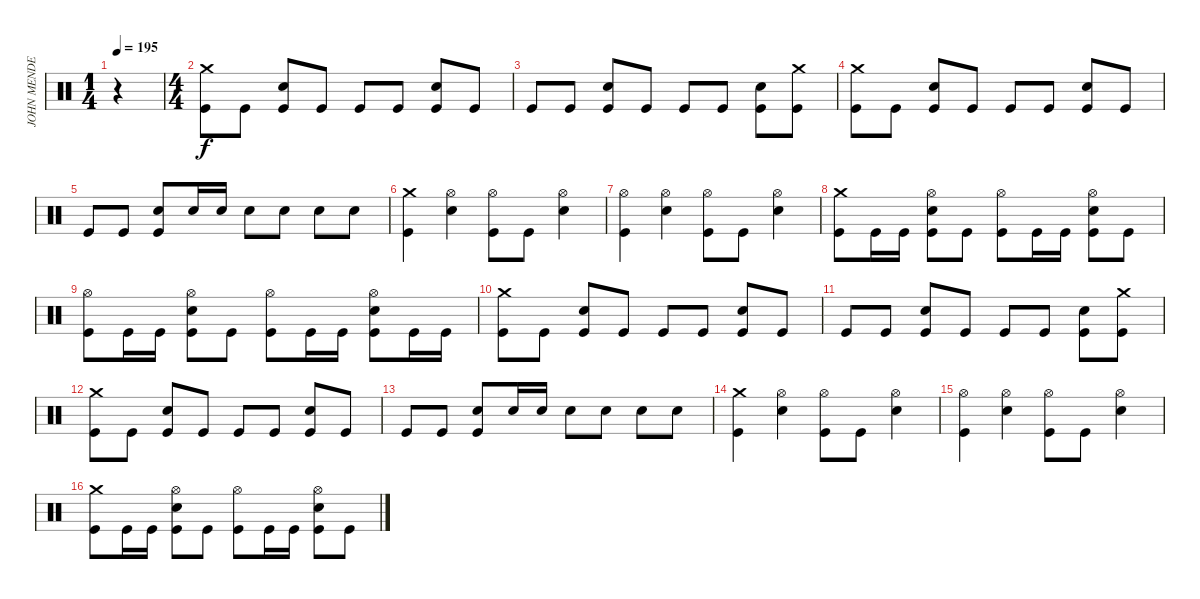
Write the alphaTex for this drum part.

\track ("JOHN MENDESSSSSSS" "JOHN MENDE") {instrument percussion}
\staff {score}
\articulation defaults
\ts (1 4)
\tempo 195
\clef neutral
\ks c
r.4{dy f} |
\ts (4 4)
("Kick (hit)" "Crash medium (hit)").8 "Kick (hit)".8 ("Kick (hit)" "Snare (hit) 2").8 "Kick (hit)".8 "Kick (hit)".8 "Kick (hit)".8 ("Kick (hit)" "Snare (hit) 2").8 "Kick (hit)".8 |
"Kick (hit)".8 "Kick (hit)".8 ("Kick (hit)" "Snare (hit) 2").8 "Kick (hit)".8 "Kick (hit)".8 "Kick (hit)".8 ("Kick (hit)" "Snare (hit) 2").8 ("Kick (hit)" "Crash medium (hit)").8 |
("Kick (hit)" "Crash medium (hit)").8 "Kick (hit)".8 ("Kick (hit)" "Snare (hit) 2").8 "Kick (hit)".8 "Kick (hit)".8 "Kick (hit)".8 ("Kick (hit)" "Snare (hit) 2").8 "Kick (hit)".8 |
"Kick (hit)".8 "Kick (hit)".8 ("Kick (hit)" "Snare (hit) 2").8 "Snare (hit) 2".16 "Snare (hit) 2".16 "Snare (hit) 2".8 "Snare (hit) 2".8 "Snare (hit) 2".8 "Snare (hit) 2".8 |
("Kick (hit)" "Crash medium (hit)").4 ("Hi-Hat (open)" "Snare (hit) 2").4 ("Kick (hit)" "Hi-Hat (open)").8 "Kick (hit)".8 ("Hi-Hat (open)" "Snare (hit) 2").4 |
("Kick (hit)" "Hi-Hat (open)").4 ("Hi-Hat (open)" "Snare (hit) 2").4 ("Kick (hit)" "Hi-Hat (open)").8 "Kick (hit)".8 ("Hi-Hat (open)" "Snare (hit) 2").4 |
("Kick (hit)" "Crash medium (hit)").8 "Kick (hit)".16 "Kick (hit)".16 ("Kick (hit)" "Snare (hit) 2" "Hi-Hat (open)").8 "Kick (hit)".8 ("Kick (hit)" "Hi-Hat (open)").8 "Kick (hit)".16 "Kick (hit)".16 ("Kick (hit)" "Snare (hit) 2" "Hi-Hat (open)").8 "Kick (hit)".8 |
("Kick (hit)" "Hi-Hat (open)").8 "Kick (hit)".16 "Kick (hit)".16 ("Kick (hit)" "Snare (hit) 2" "Hi-Hat (open)").8 "Kick (hit)".8 ("Kick (hit)" "Hi-Hat (open)").8 "Kick (hit)".16 "Kick (hit)".16 ("Kick (hit)" "Snare (hit) 2" "Hi-Hat (open)").8 "Kick (hit)".16 "Kick (hit)".16 |
("Kick (hit)" "Crash medium (hit)").8 "Kick (hit)".8 ("Kick (hit)" "Snare (hit) 2").8 "Kick (hit)".8 "Kick (hit)".8 "Kick (hit)".8 ("Kick (hit)" "Snare (hit) 2").8 "Kick (hit)".8 |
"Kick (hit)".8 "Kick (hit)".8 ("Kick (hit)" "Snare (hit) 2").8 "Kick (hit)".8 "Kick (hit)".8 "Kick (hit)".8 ("Kick (hit)" "Snare (hit) 2").8 ("Kick (hit)" "Crash medium (hit)").8 |
("Kick (hit)" "Crash medium (hit)").8 "Kick (hit)".8 ("Kick (hit)" "Snare (hit) 2").8 "Kick (hit)".8 "Kick (hit)".8 "Kick (hit)".8 ("Kick (hit)" "Snare (hit) 2").8 "Kick (hit)".8 |
"Kick (hit)".8 "Kick (hit)".8 ("Kick (hit)" "Snare (hit) 2").8 "Snare (hit) 2".16 "Snare (hit) 2".16 "Snare (hit) 2".8 "Snare (hit) 2".8 "Snare (hit) 2".8 "Snare (hit) 2".8 |
("Kick (hit)" "Crash medium (hit)").4 ("Hi-Hat (open)" "Snare (hit) 2").4 ("Kick (hit)" "Hi-Hat (open)").8 "Kick (hit)".8 ("Hi-Hat (open)" "Snare (hit) 2").4 |
("Kick (hit)" "Hi-Hat (open)").4 ("Hi-Hat (open)" "Snare (hit) 2").4 ("Kick (hit)" "Hi-Hat (open)").8 "Kick (hit)".8 ("Hi-Hat (open)" "Snare (hit) 2").4 |
("Kick (hit)" "Crash medium (hit)").8 "Kick (hit)".16 "Kick (hit)".16 ("Kick (hit)" "Snare (hit) 2" "Hi-Hat (open)").8 "Kick (hit)".8 ("Kick (hit)" "Hi-Hat (open)").8 "Kick (hit)".16 "Kick (hit)".16 ("Kick (hit)" "Snare (hit) 2" "Hi-Hat (open)").8 "Kick (hit)".8
